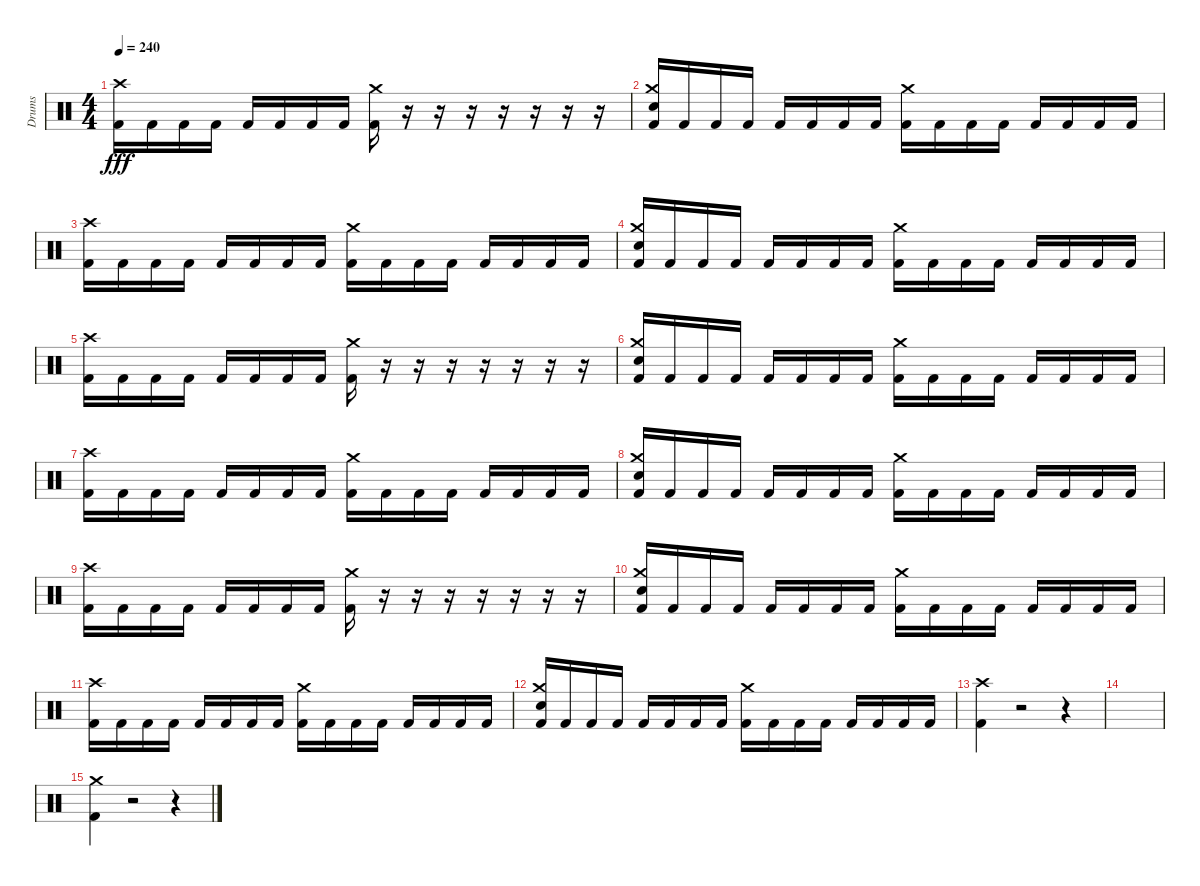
\track ("Drums" "Drums") {instrument percussion}
\staff {score}
\articulation defaults
\ts (4 4)
\tempo 240
\clef neutral
\ks c
("Crash high (hit)" "Kick (hit) 2").16{dy fff} "Kick (hit) 2".16 "Kick (hit) 2".16 "Kick (hit) 2".16 "Kick (hit) 2".16 "Kick (hit) 2".16 "Kick (hit) 2".16 "Kick (hit) 2".16 ("Crash medium (hit)" "Kick (hit) 2").16 r.16 r.16 r.16 r.16 r.16 r.16 r.16 |
("Crash medium (hit)" "Electric Snare (hit)" "Kick (hit) 2").16 "Kick (hit) 2".16 "Kick (hit) 2".16 "Kick (hit) 2".16 "Kick (hit) 2".16 "Kick (hit) 2".16 "Kick (hit) 2".16 "Kick (hit) 2".16 ("Crash medium (hit)" "Kick (hit) 2").16 "Kick (hit) 2".16 "Kick (hit) 2".16 "Kick (hit) 2".16 "Kick (hit) 2".16 "Kick (hit) 2".16 "Kick (hit) 2".16 "Kick (hit) 2".16 |
("Crash high (hit)" "Kick (hit) 2").16 "Kick (hit) 2".16 "Kick (hit) 2".16 "Kick (hit) 2".16 "Kick (hit) 2".16 "Kick (hit) 2".16 "Kick (hit) 2".16 "Kick (hit) 2".16 ("Crash medium (hit)" "Kick (hit) 2").16 "Kick (hit) 2".16 "Kick (hit) 2".16 "Kick (hit) 2".16 "Kick (hit) 2".16 "Kick (hit) 2".16 "Kick (hit) 2".16 "Kick (hit) 2".16 |
("Crash medium (hit)" "Electric Snare (hit)" "Kick (hit) 2").16 "Kick (hit) 2".16 "Kick (hit) 2".16 "Kick (hit) 2".16 "Kick (hit) 2".16 "Kick (hit) 2".16 "Kick (hit) 2".16 "Kick (hit) 2".16 ("Crash medium (hit)" "Kick (hit) 2").16 "Kick (hit) 2".16 "Kick (hit) 2".16 "Kick (hit) 2".16 "Kick (hit) 2".16 "Kick (hit) 2".16 "Kick (hit) 2".16 "Kick (hit) 2".16 |
("Crash high (hit)" "Kick (hit) 2").16 "Kick (hit) 2".16 "Kick (hit) 2".16 "Kick (hit) 2".16 "Kick (hit) 2".16 "Kick (hit) 2".16 "Kick (hit) 2".16 "Kick (hit) 2".16 ("Crash medium (hit)" "Kick (hit) 2").16 r.16 r.16 r.16 r.16 r.16 r.16 r.16 |
("Crash medium (hit)" "Electric Snare (hit)" "Kick (hit) 2").16 "Kick (hit) 2".16 "Kick (hit) 2".16 "Kick (hit) 2".16 "Kick (hit) 2".16 "Kick (hit) 2".16 "Kick (hit) 2".16 "Kick (hit) 2".16 ("Crash medium (hit)" "Kick (hit) 2").16 "Kick (hit) 2".16 "Kick (hit) 2".16 "Kick (hit) 2".16 "Kick (hit) 2".16 "Kick (hit) 2".16 "Kick (hit) 2".16 "Kick (hit) 2".16 |
("Crash high (hit)" "Kick (hit) 2").16 "Kick (hit) 2".16 "Kick (hit) 2".16 "Kick (hit) 2".16 "Kick (hit) 2".16 "Kick (hit) 2".16 "Kick (hit) 2".16 "Kick (hit) 2".16 ("Crash medium (hit)" "Kick (hit) 2").16 "Kick (hit) 2".16 "Kick (hit) 2".16 "Kick (hit) 2".16 "Kick (hit) 2".16 "Kick (hit) 2".16 "Kick (hit) 2".16 "Kick (hit) 2".16 |
("Crash medium (hit)" "Electric Snare (hit)" "Kick (hit) 2").16 "Kick (hit) 2".16 "Kick (hit) 2".16 "Kick (hit) 2".16 "Kick (hit) 2".16 "Kick (hit) 2".16 "Kick (hit) 2".16 "Kick (hit) 2".16 ("Crash medium (hit)" "Kick (hit) 2").16 "Kick (hit) 2".16 "Kick (hit) 2".16 "Kick (hit) 2".16 "Kick (hit) 2".16 "Kick (hit) 2".16 "Kick (hit) 2".16 "Kick (hit) 2".16 |
("Crash high (hit)" "Kick (hit) 2").16 "Kick (hit) 2".16 "Kick (hit) 2".16 "Kick (hit) 2".16 "Kick (hit) 2".16 "Kick (hit) 2".16 "Kick (hit) 2".16 "Kick (hit) 2".16 ("Crash medium (hit)" "Kick (hit) 2").16 r.16 r.16 r.16 r.16 r.16 r.16 r.16 |
("Crash medium (hit)" "Electric Snare (hit)" "Kick (hit) 2").16 "Kick (hit) 2".16 "Kick (hit) 2".16 "Kick (hit) 2".16 "Kick (hit) 2".16 "Kick (hit) 2".16 "Kick (hit) 2".16 "Kick (hit) 2".16 ("Crash medium (hit)" "Kick (hit) 2").16 "Kick (hit) 2".16 "Kick (hit) 2".16 "Kick (hit) 2".16 "Kick (hit) 2".16 "Kick (hit) 2".16 "Kick (hit) 2".16 "Kick (hit) 2".16 |
("Crash high (hit)" "Kick (hit) 2").16 "Kick (hit) 2".16 "Kick (hit) 2".16 "Kick (hit) 2".16 "Kick (hit) 2".16 "Kick (hit) 2".16 "Kick (hit) 2".16 "Kick (hit) 2".16 ("Crash medium (hit)" "Kick (hit) 2").16 "Kick (hit) 2".16 "Kick (hit) 2".16 "Kick (hit) 2".16 "Kick (hit) 2".16 "Kick (hit) 2".16 "Kick (hit) 2".16 "Kick (hit) 2".16 |
("Crash medium (hit)" "Electric Snare (hit)" "Kick (hit) 2").16 "Kick (hit) 2".16 "Kick (hit) 2".16 "Kick (hit) 2".16 "Kick (hit) 2".16 "Kick (hit) 2".16 "Kick (hit) 2".16 "Kick (hit) 2".16 ("Crash medium (hit)" "Kick (hit) 2").16 "Kick (hit) 2".16 "Kick (hit) 2".16 "Kick (hit) 2".16 "Kick (hit) 2".16 "Kick (hit) 2".16 "Kick (hit) 2".16 "Kick (hit) 2".16 |
("Crash high (hit)" "Kick (hit) 2").4 r.2 r.4 |
|
("Crash medium (hit)" "Kick (hit) 2").4 r.2 r.4
